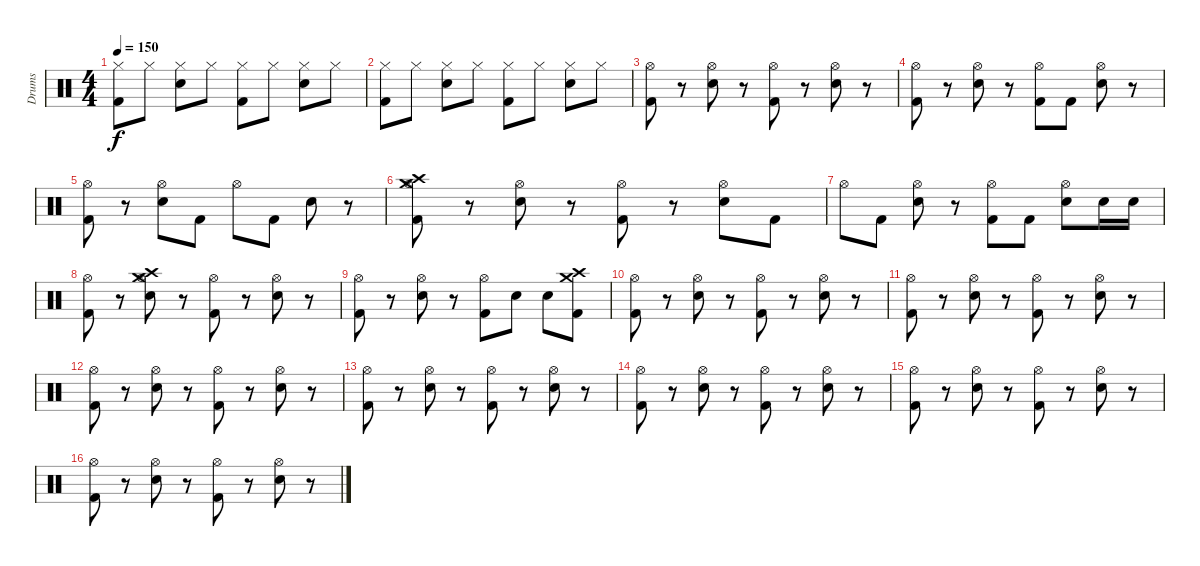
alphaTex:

\track ("Drums" "Drums") {instrument percussion}
\staff {score}
\articulation defaults
\ts (4 4)
\tempo 150
\clef neutral
\ks c
("Hi-Hat (closed)" "Kick (hit) 2").8{dy f} "Hi-Hat (closed)".8 ("Hi-Hat (closed)" "Electric Snare (hit)").8 "Hi-Hat (closed)".8 ("Hi-Hat (closed)" "Kick (hit) 2").8 "Hi-Hat (closed)".8 ("Hi-Hat (closed)" "Electric Snare (hit)").8 "Hi-Hat (closed)".8 |
("Hi-Hat (closed)" "Kick (hit) 2").8 "Hi-Hat (closed)".8 ("Hi-Hat (closed)" "Electric Snare (hit)").8 "Hi-Hat (closed)".8 ("Hi-Hat (closed)" "Kick (hit) 2").8 "Hi-Hat (closed)".8 ("Hi-Hat (closed)" "Electric Snare (hit)").8 "Hi-Hat (closed)".8 |
("Hi-Hat (open)" "Kick (hit) 2").8 r.8 ("Hi-Hat (open)" "Electric Snare (hit)").8 r.8 ("Hi-Hat (open)" "Kick (hit) 2").8 r.8 ("Hi-Hat (open)" "Electric Snare (hit)").8 r.8 |
("Hi-Hat (open)" "Kick (hit) 2").8 r.8 ("Hi-Hat (open)" "Electric Snare (hit)").8 r.8 ("Hi-Hat (open)" "Kick (hit) 2").8 "Kick (hit) 2".8 ("Hi-Hat (open)" "Electric Snare (hit)").8 r.8 |
("Hi-Hat (open)" "Kick (hit) 2").8 r.8 ("Hi-Hat (open)" "Electric Snare (hit)").8 "Kick (hit) 2".8 "Hi-Hat (open)".8 "Kick (hit) 2".8 "Electric Snare (hit)".8 r.8 |
("Hi-Hat (open)" "Kick (hit) 2" "Crash medium (hit)" "Crash high (hit)").8 r.8 ("Hi-Hat (open)" "Electric Snare (hit)").8 r.8 ("Hi-Hat (open)" "Kick (hit) 2").8 r.8 ("Hi-Hat (open)" "Electric Snare (hit)").8 "Kick (hit) 2".8 |
"Hi-Hat (open)".8 "Kick (hit) 2".8 ("Hi-Hat (open)" "Electric Snare (hit)").8 r.8 ("Hi-Hat (open)" "Kick (hit) 2").8 "Kick (hit) 2".8 ("Hi-Hat (open)" "Electric Snare (hit)").8 "Electric Snare (hit)".16 "Electric Snare (hit)".16 |
("Hi-Hat (open)" "Kick (hit) 2").8 r.8 ("Hi-Hat (open)" "Electric Snare (hit)" "Crash high (hit)" "Crash medium (hit)").8 r.8 ("Hi-Hat (open)" "Kick (hit) 2").8 r.8 ("Hi-Hat (open)" "Electric Snare (hit)").8 r.8 |
("Hi-Hat (open)" "Kick (hit) 2").8 r.8 ("Hi-Hat (open)" "Electric Snare (hit)").8 r.8 ("Hi-Hat (open)" "Kick (hit) 2").8 "Electric Snare (hit)".8 "Electric Snare (hit)".8 ("Kick (hit) 2" "Crash medium (hit)" "Crash high (hit)").8 |
("Hi-Hat (open)" "Kick (hit) 2").8 r.8 ("Hi-Hat (open)" "Electric Snare (hit)").8 r.8 ("Hi-Hat (open)" "Kick (hit) 2").8 r.8 ("Hi-Hat (open)" "Electric Snare (hit)").8 r.8 |
("Hi-Hat (open)" "Kick (hit) 2").8 r.8 ("Hi-Hat (open)" "Electric Snare (hit)").8 r.8 ("Hi-Hat (open)" "Kick (hit) 2").8 r.8 ("Hi-Hat (open)" "Electric Snare (hit)").8 r.8 |
("Hi-Hat (open)" "Kick (hit) 2").8 r.8 ("Hi-Hat (open)" "Electric Snare (hit)").8 r.8 ("Hi-Hat (open)" "Kick (hit) 2").8 r.8 ("Hi-Hat (open)" "Electric Snare (hit)").8 r.8 |
("Hi-Hat (open)" "Kick (hit) 2").8 r.8 ("Hi-Hat (open)" "Electric Snare (hit)").8 r.8 ("Hi-Hat (open)" "Kick (hit) 2").8 r.8 ("Hi-Hat (open)" "Electric Snare (hit)").8 r.8 |
("Hi-Hat (open)" "Kick (hit) 2").8 r.8 ("Hi-Hat (open)" "Electric Snare (hit)").8 r.8 ("Hi-Hat (open)" "Kick (hit) 2").8 r.8 ("Hi-Hat (open)" "Electric Snare (hit)").8 r.8 |
("Hi-Hat (open)" "Kick (hit) 2").8 r.8 ("Hi-Hat (open)" "Electric Snare (hit)").8 r.8 ("Hi-Hat (open)" "Kick (hit) 2").8 r.8 ("Hi-Hat (open)" "Electric Snare (hit)").8 r.8 |
("Hi-Hat (open)" "Kick (hit) 2").8 r.8 ("Hi-Hat (open)" "Electric Snare (hit)").8 r.8 ("Hi-Hat (open)" "Kick (hit) 2").8 r.8 ("Hi-Hat (open)" "Electric Snare (hit)").8 r.8
